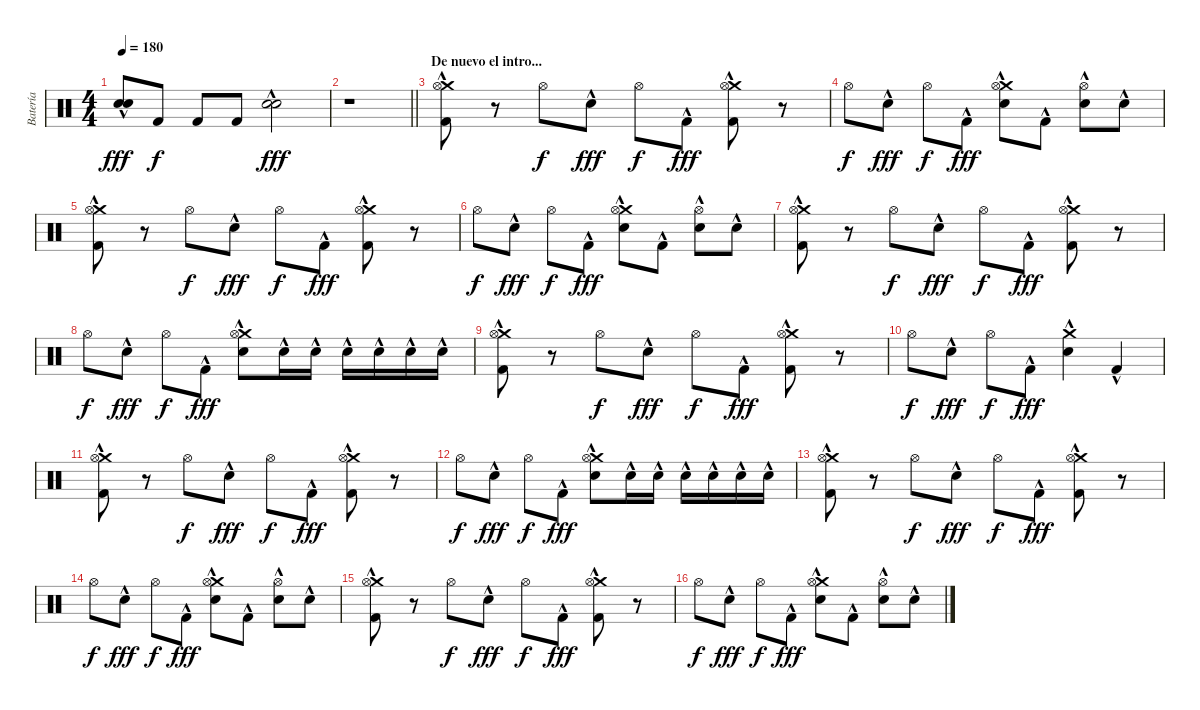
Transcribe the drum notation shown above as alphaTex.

\track ("Batería" "Batería") {instrument percussion}
\staff {score}
\articulation defaults
\ts (4 4)
\tempo 180
\clef neutral
\ks c
("Snare (hit) 2"{hac} "Snare (hit) 2"{hac}).8{dy fff} "Kick (hit) 2".8{dy f} "Kick (hit) 2".8 "Kick (hit) 2".8 ("Snare (hit) 2"{hac} "Snare (hit) 2"{hac}).2{dy fff} |
\barLineRight lightlight
r.1 |
\section ("" "De nuevo el intro...")
("Crash medium (hit)"{hac} "Hi-Hat (open)" "Kick (hit) 2"{hac}).8 r.8 "Hi-Hat (open)".8{dy f} "Snare (hit) 2"{hac}.8{dy fff} "Hi-Hat (open)".8{dy f} "Kick (hit) 2"{hac}.8{dy fff} ("Crash medium (hit)"{hac} "Hi-Hat (open)" "Kick (hit) 2"{hac}).8 r.8 |
"Hi-Hat (open)".8{dy f} "Snare (hit) 2"{hac}.8{dy fff} "Hi-Hat (open)".8{dy f} "Kick (hit) 2"{hac}.8{dy fff} ("Crash medium (hit)"{hac} "Snare (hit) 2"{hac} "Hi-Hat (open)").8 "Kick (hit) 2"{hac}.8 ("Snare (hit) 2"{hac} "Hi-Hat (open)").8 "Snare (hit) 2"{hac}.8 |
("Crash medium (hit)"{hac} "Hi-Hat (open)" "Kick (hit) 2"{hac}).8 r.8 "Hi-Hat (open)".8{dy f} "Snare (hit) 2"{hac}.8{dy fff} "Hi-Hat (open)".8{dy f} "Kick (hit) 2"{hac}.8{dy fff} ("Crash medium (hit)"{hac} "Hi-Hat (open)" "Kick (hit) 2"{hac}).8 r.8 |
"Hi-Hat (open)".8{dy f} "Snare (hit) 2"{hac}.8{dy fff} "Hi-Hat (open)".8{dy f} "Kick (hit) 2"{hac}.8{dy fff} ("Crash medium (hit)"{hac} "Snare (hit) 2"{hac} "Hi-Hat (open)").8 "Kick (hit) 2"{hac}.8 ("Snare (hit) 2"{hac} "Hi-Hat (open)").8 "Snare (hit) 2"{hac}.8 |
("Crash medium (hit)"{hac} "Hi-Hat (open)" "Kick (hit) 2"{hac}).8 r.8 "Hi-Hat (open)".8{dy f} "Snare (hit) 2"{hac}.8{dy fff} "Hi-Hat (open)".8{dy f} "Kick (hit) 2"{hac}.8{dy fff} ("Crash medium (hit)"{hac} "Hi-Hat (open)" "Kick (hit) 2"{hac}).8 r.8 |
"Hi-Hat (open)".8{dy f} "Snare (hit) 2"{hac}.8{dy fff} "Hi-Hat (open)".8{dy f} "Kick (hit) 2"{hac}.8{dy fff} ("Crash medium (hit)"{hac} "Snare (hit) 2"{hac} "Hi-Hat (open)").8 "Snare (hit) 2"{hac}.16 "Snare (hit) 2"{hac}.16 "Snare (hit) 2"{hac}.16 "Snare (hit) 2"{hac}.16 "Snare (hit) 2"{hac}.16 "Snare (hit) 2"{hac}.16 |
("Crash medium (hit)"{hac} "Hi-Hat (open)" "Kick (hit) 2"{hac}).8 r.8 "Hi-Hat (open)".8{dy f} "Snare (hit) 2"{hac}.8{dy fff} "Hi-Hat (open)".8{dy f} "Kick (hit) 2"{hac}.8{dy fff} ("Crash medium (hit)"{hac} "Hi-Hat (open)" "Kick (hit) 2"{hac}).8 r.8 |
"Hi-Hat (open)".8{dy f} "Snare (hit) 2"{hac}.8{dy fff} "Hi-Hat (open)".8{dy f} "Kick (hit) 2"{hac}.8{dy fff} ("Crash medium (hit)"{hac} "Snare (hit) 2"{hac}).4 "Kick (hit) 2"{hac}.4 |
("Crash medium (hit)"{hac} "Hi-Hat (open)" "Kick (hit) 2"{hac}).8 r.8 "Hi-Hat (open)".8{dy f} "Snare (hit) 2"{hac}.8{dy fff} "Hi-Hat (open)".8{dy f} "Kick (hit) 2"{hac}.8{dy fff} ("Crash medium (hit)"{hac} "Hi-Hat (open)" "Kick (hit) 2"{hac}).8 r.8 |
"Hi-Hat (open)".8{dy f} "Snare (hit) 2"{hac}.8{dy fff} "Hi-Hat (open)".8{dy f} "Kick (hit) 2"{hac}.8{dy fff} ("Crash medium (hit)"{hac} "Snare (hit) 2"{hac} "Hi-Hat (open)").8 "Snare (hit) 2"{hac}.16 "Snare (hit) 2"{hac}.16 "Snare (hit) 2"{hac}.16 "Snare (hit) 2"{hac}.16 "Snare (hit) 2"{hac}.16 "Snare (hit) 2"{hac}.16 |
("Crash medium (hit)"{hac} "Hi-Hat (open)" "Kick (hit) 2"{hac}).8 r.8 "Hi-Hat (open)".8{dy f} "Snare (hit) 2"{hac}.8{dy fff} "Hi-Hat (open)".8{dy f} "Kick (hit) 2"{hac}.8{dy fff} ("Crash medium (hit)"{hac} "Hi-Hat (open)" "Kick (hit) 2"{hac}).8 r.8 |
"Hi-Hat (open)".8{dy f} "Snare (hit) 2"{hac}.8{dy fff} "Hi-Hat (open)".8{dy f} "Kick (hit) 2"{hac}.8{dy fff} ("Crash medium (hit)"{hac} "Snare (hit) 2"{hac} "Hi-Hat (open)").8 "Kick (hit) 2"{hac}.8 ("Snare (hit) 2"{hac} "Hi-Hat (open)").8 "Snare (hit) 2"{hac}.8 |
("Crash medium (hit)"{hac} "Hi-Hat (open)" "Kick (hit) 2"{hac}).8 r.8 "Hi-Hat (open)".8{dy f} "Snare (hit) 2"{hac}.8{dy fff} "Hi-Hat (open)".8{dy f} "Kick (hit) 2"{hac}.8{dy fff} ("Crash medium (hit)"{hac} "Hi-Hat (open)" "Kick (hit) 2"{hac}).8 r.8 |
"Hi-Hat (open)".8{dy f} "Snare (hit) 2"{hac}.8{dy fff} "Hi-Hat (open)".8{dy f} "Kick (hit) 2"{hac}.8{dy fff} ("Crash medium (hit)"{hac} "Snare (hit) 2"{hac} "Hi-Hat (open)").8 "Kick (hit) 2"{hac}.8 ("Snare (hit) 2"{hac} "Hi-Hat (open)").8 "Snare (hit) 2"{hac}.8
